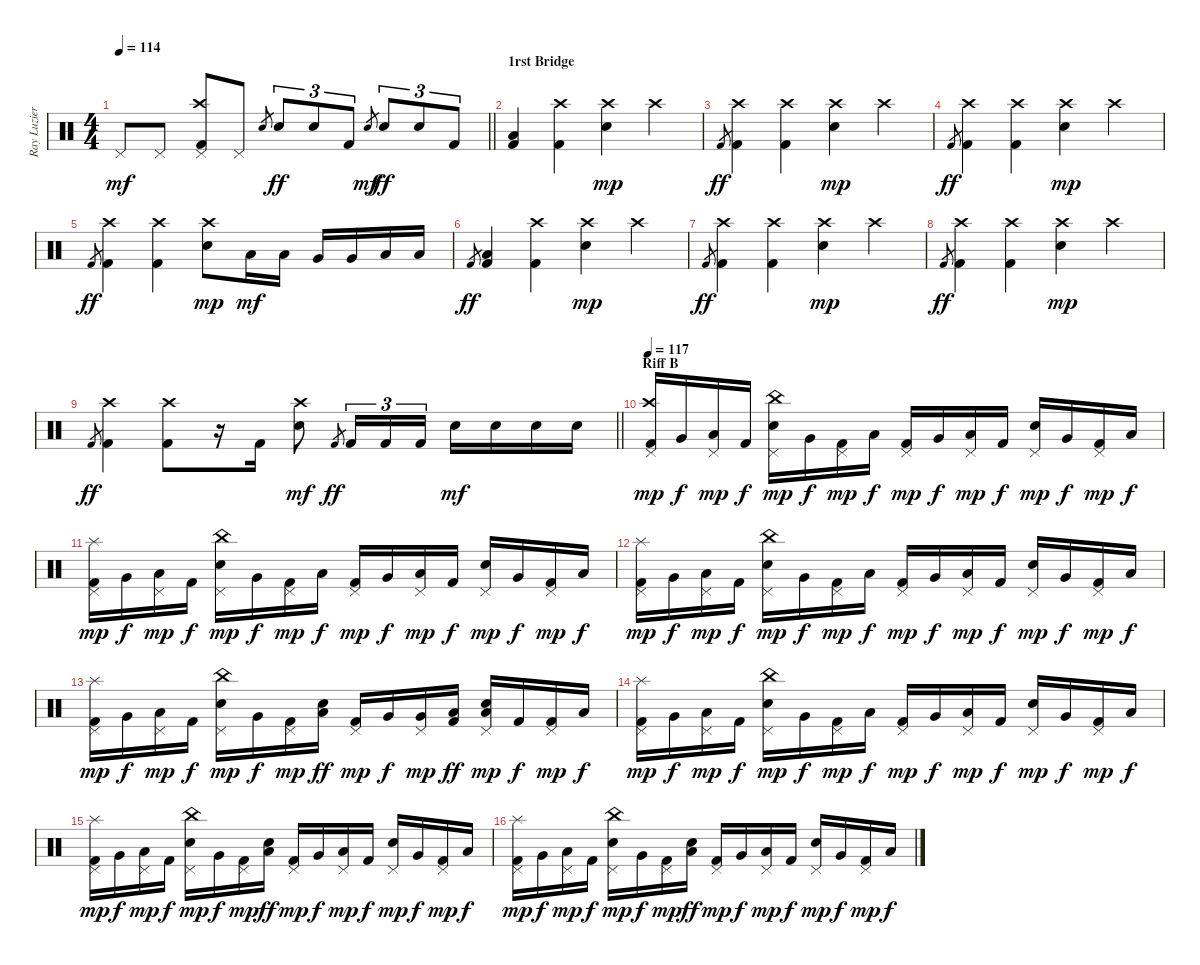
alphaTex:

\track ("Ray Luzier" "Ray Luzier") {instrument percussion}
\staff {score}
\articulation defaults
\ts (4 4)
\tempo 114
\clef neutral
\barLineRight lightlight
\ks c "Pedal Hi-Hat (hit)".8{dy mf} "Pedal Hi-Hat (hit)".8
("Crash high (hit)" "Pedal Hi-Hat (hit)" "Kick (hit) 2").8 "Pedal Hi-Hat (hit)".8 "Snare (hit) 2".8{gr} "Snare (hit) 2".8{tu (3 2) dy ff} "Snare (hit) 2".8{tu (3 2)} "Kick (hit) 2".8{tu (3 2)} "Snare (hit) 2".8{gr dy mf} "Snare (hit) 2".8{tu (3 2) dy ff} "Snare (hit) 2".8{tu (3 2)} "Kick (hit) 2".8{tu (3 2)} |
\section ("" "1rst Bridge")
("Low Floor Tom (hit)" "Kick (hit) 2").4 ("Crash high (hit)" "Kick (hit) 2").4 ("Crash high (hit)" "Snare (hit) 2").4{dy mp} "Crash high (hit)".4 |
"Kick (hit) 2".8{gr dy ff} ("Crash high (hit)" "Kick (hit) 2").4 ("Crash high (hit)" "Kick (hit) 2").4 ("Crash high (hit)" "Snare (hit) 2").4{dy mp} "Crash high (hit)".4 |
"Kick (hit) 2".8{gr dy ff} ("Crash high (hit)" "Kick (hit) 2").4 ("Crash high (hit)" "Kick (hit) 2").4 ("Crash high (hit)" "Snare (hit) 2").4{dy mp} "Crash high (hit)".4 |
"Kick (hit) 2".8{gr dy ff} ("Crash high (hit)" "Kick (hit) 2").4 ("Crash high (hit)" "Kick (hit) 2").4 ("Crash high (hit)" "Snare (hit) 2").8{dy mp} "Low Tom (hit)".16{dy mf} "Low Tom (hit)".16 "Very Low Tom (hit)".16 "Very Low Tom (hit)".16 "Low Floor Tom (hit)".16 "Low Floor Tom (hit)".16 |
"Kick (hit) 2".8{gr dy ff} ("Low Floor Tom (hit)" "Kick (hit) 2").4 ("Crash high (hit)" "Kick (hit) 2").4 ("Crash high (hit)" "Snare (hit) 2").4{dy mp} "Crash high (hit)".4 |
"Kick (hit) 2".8{gr dy ff} ("Crash high (hit)" "Kick (hit) 2").4 ("Crash high (hit)" "Kick (hit) 2").4 ("Crash high (hit)" "Snare (hit) 2").4{dy mp} "Crash high (hit)".4 |
"Kick (hit) 2".8{gr dy ff} ("Crash high (hit)" "Kick (hit) 2").4 ("Crash high (hit)" "Kick (hit) 2").4 ("Crash high (hit)" "Snare (hit) 2").4{dy mp} "Crash high (hit)".4 |
\barLineRight lightlight "Kick (hit) 2".8{gr dy ff}
("Crash high (hit)" "Kick (hit) 2").4 ("Crash high (hit)" "Kick (hit) 2").8 r.16 "Kick (hit) 2".16 ("Crash high (hit)" "Snare (hit) 2").8{dy mf} "Kick (hit) 2".8{gr dy ff} "Kick (hit) 2".16{tu (3 2)} "Kick (hit) 2".16{tu (3 2)} "Kick (hit) 2".16{tu (3 2)} "Snare (hit) 2".16{dy mf} "Snare (hit) 2".16 "Snare (hit) 2".16 "Snare (hit) 2".16 |
\section ("" "Riff B")
\tempo 117
("Crash high (hit)" "Pedal Hi-Hat (hit)" "Kick (hit) 2").16{dy mp} "Very Low Tom (hit)".16{dy f} ("Pedal Hi-Hat (hit)" "Low Floor Tom (hit)").16{dy mp} "Kick (hit) 2".16{dy f} ("China (hit)" "Pedal Hi-Hat (hit)" "Snare (hit) 2").16{dy mp} "Very Low Tom (hit)".16{dy f} ("Pedal Hi-Hat (hit)" "Kick (hit) 2").16{dy mp} "Low Floor Tom (hit)".16{dy f} ("Pedal Hi-Hat (hit)" "Kick (hit) 2").16{dy mp} "Very Low Tom (hit)".16{dy f} ("Pedal Hi-Hat (hit)" "Low Floor Tom (hit)").16{dy mp} "Kick (hit) 2".16{dy f} ("Pedal Hi-Hat (hit)" "Snare (hit) 2").16{dy mp} "Very Low Tom (hit)".16{dy f} ("Pedal Hi-Hat (hit)" "Kick (hit) 2").16{dy mp} "Low Floor Tom (hit)".16{dy f} |
("Splash (hit)" "Pedal Hi-Hat (hit)" "Kick (hit) 2").16{dy mp} "Very Low Tom (hit)".16{dy f} ("Pedal Hi-Hat (hit)" "Low Floor Tom (hit)").16{dy mp} "Kick (hit) 2".16{dy f} ("China (hit)" "Pedal Hi-Hat (hit)" "Snare (hit) 2").16{dy mp} "Very Low Tom (hit)".16{dy f} ("Pedal Hi-Hat (hit)" "Kick (hit) 2").16{dy mp} "Low Floor Tom (hit)".16{dy f} ("Pedal Hi-Hat (hit)" "Kick (hit) 2").16{dy mp} "Very Low Tom (hit)".16{dy f} ("Pedal Hi-Hat (hit)" "Low Floor Tom (hit)").16{dy mp} "Kick (hit) 2".16{dy f} ("Pedal Hi-Hat (hit)" "Snare (hit) 2").16{dy mp} "Very Low Tom (hit)".16{dy f} ("Pedal Hi-Hat (hit)" "Kick (hit) 2").16{dy mp} "Low Floor Tom (hit)".16{dy f} |
("Splash (hit)" "Pedal Hi-Hat (hit)" "Kick (hit) 2").16{dy mp} "Very Low Tom (hit)".16{dy f} ("Pedal Hi-Hat (hit)" "Low Floor Tom (hit)").16{dy mp} "Kick (hit) 2".16{dy f} ("China (hit)" "Pedal Hi-Hat (hit)" "Snare (hit) 2").16{dy mp} "Very Low Tom (hit)".16{dy f} ("Pedal Hi-Hat (hit)" "Kick (hit) 2").16{dy mp} "Low Floor Tom (hit)".16{dy f} ("Pedal Hi-Hat (hit)" "Kick (hit) 2").16{dy mp} "Very Low Tom (hit)".16{dy f} ("Pedal Hi-Hat (hit)" "Low Floor Tom (hit)").16{dy mp} "Kick (hit) 2".16{dy f} ("Pedal Hi-Hat (hit)" "Snare (hit) 2").16{dy mp} "Very Low Tom (hit)".16{dy f} ("Pedal Hi-Hat (hit)" "Kick (hit) 2").16{dy mp} "Low Floor Tom (hit)".16{dy f} |
("Splash (hit)" "Pedal Hi-Hat (hit)" "Kick (hit) 2").16{dy mp} "Very Low Tom (hit)".16{dy f} ("Pedal Hi-Hat (hit)" "Low Floor Tom (hit)").16{dy mp} "Kick (hit) 2".16{dy f} ("China (hit)" "Pedal Hi-Hat (hit)" "Snare (hit) 2").16{dy mp} "Very Low Tom (hit)".16{dy f} ("Pedal Hi-Hat (hit)" "Kick (hit) 2").16{dy mp} ("Low Floor Tom (hit)" "Snare (hit) 2").16{dy ff} ("Pedal Hi-Hat (hit)" "Kick (hit) 2").16{dy mp} "Very Low Tom (hit)".16{dy f} ("Pedal Hi-Hat (hit)" "Very Low Tom (hit)").16{dy mp} ("Low Floor Tom (hit)" "Kick (hit) 2").16{dy ff} ("Pedal Hi-Hat (hit)" "Low Floor Tom (hit)" "Snare (hit) 2").16{dy mp} "Kick (hit) 2".16{dy f} ("Pedal Hi-Hat (hit)" "Kick (hit) 2").16{dy mp} "Low Floor Tom (hit)".16{dy f} |
("Splash (hit)" "Pedal Hi-Hat (hit)" "Kick (hit) 2").16{dy mp} "Very Low Tom (hit)".16{dy f} ("Pedal Hi-Hat (hit)" "Low Floor Tom (hit)").16{dy mp} "Kick (hit) 2".16{dy f} ("China (hit)" "Pedal Hi-Hat (hit)" "Snare (hit) 2").16{dy mp} "Very Low Tom (hit)".16{dy f} ("Pedal Hi-Hat (hit)" "Kick (hit) 2").16{dy mp} "Low Floor Tom (hit)".16{dy f} ("Pedal Hi-Hat (hit)" "Kick (hit) 2").16{dy mp} "Very Low Tom (hit)".16{dy f} ("Pedal Hi-Hat (hit)" "Low Floor Tom (hit)").16{dy mp} "Kick (hit) 2".16{dy f} ("Pedal Hi-Hat (hit)" "Snare (hit) 2").16{dy mp} "Very Low Tom (hit)".16{dy f} ("Pedal Hi-Hat (hit)" "Kick (hit) 2").16{dy mp} "Low Floor Tom (hit)".16{dy f} |
("Splash (hit)" "Pedal Hi-Hat (hit)" "Kick (hit) 2").16{dy mp} "Very Low Tom (hit)".16{dy f} ("Pedal Hi-Hat (hit)" "Low Floor Tom (hit)").16{dy mp} "Kick (hit) 2".16{dy f} ("China (hit)" "Pedal Hi-Hat (hit)" "Snare (hit) 2").16{dy mp} "Very Low Tom (hit)".16{dy f} ("Pedal Hi-Hat (hit)" "Kick (hit) 2").16{dy mp} ("Low Floor Tom (hit)" "Snare (hit) 2").16{dy ff} ("Pedal Hi-Hat (hit)" "Kick (hit) 2").16{dy mp} "Very Low Tom (hit)".16{dy f} ("Pedal Hi-Hat (hit)" "Low Floor Tom (hit)").16{dy mp} "Kick (hit) 2".16{dy f} ("Pedal Hi-Hat (hit)" "Snare (hit) 2").16{dy mp} "Very Low Tom (hit)".16{dy f} ("Pedal Hi-Hat (hit)" "Kick (hit) 2").16{dy mp} "Low Floor Tom (hit)".16{dy f} |
("Splash (hit)" "Pedal Hi-Hat (hit)" "Kick (hit) 2").16{dy mp} "Very Low Tom (hit)".16{dy f} ("Pedal Hi-Hat (hit)" "Low Floor Tom (hit)").16{dy mp} "Kick (hit) 2".16{dy f} ("China (hit)" "Pedal Hi-Hat (hit)" "Snare (hit) 2").16{dy mp} "Very Low Tom (hit)".16{dy f} ("Pedal Hi-Hat (hit)" "Kick (hit) 2").16{dy mp} ("Low Floor Tom (hit)" "Snare (hit) 2").16{dy ff} ("Pedal Hi-Hat (hit)" "Kick (hit) 2").16{dy mp} "Very Low Tom (hit)".16{dy f} ("Pedal Hi-Hat (hit)" "Low Floor Tom (hit)").16{dy mp} "Kick (hit) 2".16{dy f} ("Pedal Hi-Hat (hit)" "Snare (hit) 2").16{dy mp} "Very Low Tom (hit)".16{dy f} ("Pedal Hi-Hat (hit)" "Kick (hit) 2").16{dy mp} "Low Floor Tom (hit)".16{dy f}
